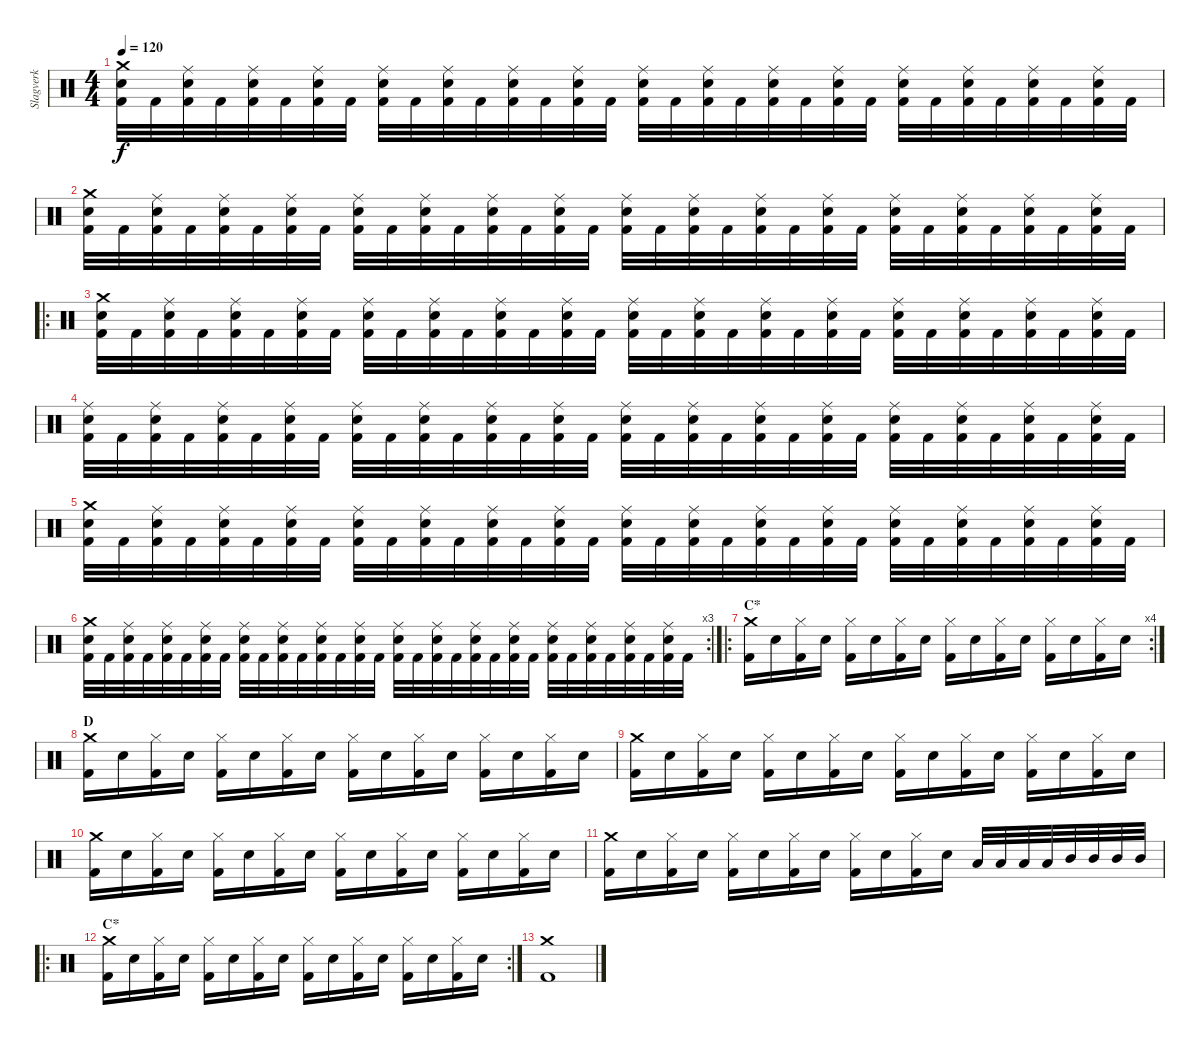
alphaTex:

\track ("Slagverk" "Slagverk") {instrument percussion}
\staff {score}
\articulation defaults
\ts (4 4)
\tempo 120
\clef neutral
\ks c
("Crash medium (hit)" "Electric Snare (hit)" "Kick (hit) 2").32{dy f} "Kick (hit) 2".32 ("Ride (middle)" "Electric Snare (hit)" "Kick (hit) 2").32 "Kick (hit) 2".32 ("Ride (middle)" "Electric Snare (hit)" "Kick (hit) 2").32 "Kick (hit) 2".32 ("Ride (middle)" "Electric Snare (hit)" "Kick (hit) 2").32 "Kick (hit) 2".32 ("Ride (middle)" "Electric Snare (hit)" "Kick (hit) 2").32 "Kick (hit) 2".32 ("Ride (middle)" "Electric Snare (hit)" "Kick (hit) 2").32 "Kick (hit) 2".32 ("Ride (middle)" "Electric Snare (hit)" "Kick (hit) 2").32 "Kick (hit) 2".32 ("Ride (middle)" "Electric Snare (hit)" "Kick (hit) 2").32 "Kick (hit) 2".32 ("Ride (middle)" "Electric Snare (hit)" "Kick (hit) 2").32 "Kick (hit) 2".32 ("Ride (middle)" "Electric Snare (hit)" "Kick (hit) 2").32 "Kick (hit) 2".32 ("Ride (middle)" "Electric Snare (hit)" "Kick (hit) 2").32 "Kick (hit) 2".32 ("Ride (middle)" "Electric Snare (hit)" "Kick (hit) 2").32 "Kick (hit) 2".32 ("Ride (middle)" "Electric Snare (hit)" "Kick (hit) 2").32 "Kick (hit) 2".32 ("Ride (middle)" "Electric Snare (hit)" "Kick (hit) 2").32 "Kick (hit) 2".32 ("Ride (middle)" "Electric Snare (hit)" "Kick (hit) 2").32 "Kick (hit) 2".32 ("Ride (middle)" "Electric Snare (hit)" "Kick (hit) 2").32 "Kick (hit) 2".32 |
("Crash medium (hit)" "Electric Snare (hit)" "Kick (hit) 2").32 "Kick (hit) 2".32 ("Ride (middle)" "Electric Snare (hit)" "Kick (hit) 2").32 "Kick (hit) 2".32 ("Ride (middle)" "Electric Snare (hit)" "Kick (hit) 2").32 "Kick (hit) 2".32 ("Ride (middle)" "Electric Snare (hit)" "Kick (hit) 2").32 "Kick (hit) 2".32 ("Ride (middle)" "Electric Snare (hit)" "Kick (hit) 2").32 "Kick (hit) 2".32 ("Ride (middle)" "Electric Snare (hit)" "Kick (hit) 2").32 "Kick (hit) 2".32 ("Ride (middle)" "Electric Snare (hit)" "Kick (hit) 2").32 "Kick (hit) 2".32 ("Ride (middle)" "Electric Snare (hit)" "Kick (hit) 2").32 "Kick (hit) 2".32 ("Ride (middle)" "Electric Snare (hit)" "Kick (hit) 2").32 "Kick (hit) 2".32 ("Ride (middle)" "Electric Snare (hit)" "Kick (hit) 2").32 "Kick (hit) 2".32 ("Ride (middle)" "Electric Snare (hit)" "Kick (hit) 2").32 "Kick (hit) 2".32 ("Ride (middle)" "Electric Snare (hit)" "Kick (hit) 2").32 "Kick (hit) 2".32 ("Ride (middle)" "Electric Snare (hit)" "Kick (hit) 2").32 "Kick (hit) 2".32 ("Ride (middle)" "Electric Snare (hit)" "Kick (hit) 2").32 "Kick (hit) 2".32 ("Ride (middle)" "Electric Snare (hit)" "Kick (hit) 2").32 "Kick (hit) 2".32 ("Ride (middle)" "Electric Snare (hit)" "Kick (hit) 2").32 "Kick (hit) 2".32 |
\ro
("Crash medium (hit)" "Electric Snare (hit)" "Kick (hit) 2").32 "Kick (hit) 2".32 ("Ride (middle)" "Electric Snare (hit)" "Kick (hit) 2").32 "Kick (hit) 2".32 ("Ride (middle)" "Electric Snare (hit)" "Kick (hit) 2").32 "Kick (hit) 2".32 ("Ride (middle)" "Electric Snare (hit)" "Kick (hit) 2").32 "Kick (hit) 2".32 ("Ride (middle)" "Electric Snare (hit)" "Kick (hit) 2").32 "Kick (hit) 2".32 ("Ride (middle)" "Electric Snare (hit)" "Kick (hit) 2").32 "Kick (hit) 2".32 ("Ride (middle)" "Electric Snare (hit)" "Kick (hit) 2").32 "Kick (hit) 2".32 ("Ride (middle)" "Electric Snare (hit)" "Kick (hit) 2").32 "Kick (hit) 2".32 ("Ride (middle)" "Electric Snare (hit)" "Kick (hit) 2").32 "Kick (hit) 2".32 ("Ride (middle)" "Electric Snare (hit)" "Kick (hit) 2").32 "Kick (hit) 2".32 ("Ride (middle)" "Electric Snare (hit)" "Kick (hit) 2").32 "Kick (hit) 2".32 ("Ride (middle)" "Electric Snare (hit)" "Kick (hit) 2").32 "Kick (hit) 2".32 ("Ride (middle)" "Electric Snare (hit)" "Kick (hit) 2").32 "Kick (hit) 2".32 ("Ride (middle)" "Electric Snare (hit)" "Kick (hit) 2").32 "Kick (hit) 2".32 ("Ride (middle)" "Electric Snare (hit)" "Kick (hit) 2").32 "Kick (hit) 2".32 ("Ride (middle)" "Electric Snare (hit)" "Kick (hit) 2").32 "Kick (hit) 2".32 |
("Ride (middle)" "Electric Snare (hit)" "Kick (hit) 2").32 "Kick (hit) 2".32 ("Ride (middle)" "Electric Snare (hit)" "Kick (hit) 2").32 "Kick (hit) 2".32 ("Ride (middle)" "Electric Snare (hit)" "Kick (hit) 2").32 "Kick (hit) 2".32 ("Ride (middle)" "Electric Snare (hit)" "Kick (hit) 2").32 "Kick (hit) 2".32 ("Ride (middle)" "Electric Snare (hit)" "Kick (hit) 2").32 "Kick (hit) 2".32 ("Ride (middle)" "Electric Snare (hit)" "Kick (hit) 2").32 "Kick (hit) 2".32 ("Ride (middle)" "Electric Snare (hit)" "Kick (hit) 2").32 "Kick (hit) 2".32 ("Ride (middle)" "Electric Snare (hit)" "Kick (hit) 2").32 "Kick (hit) 2".32 ("Ride (middle)" "Electric Snare (hit)" "Kick (hit) 2").32 "Kick (hit) 2".32 ("Ride (middle)" "Electric Snare (hit)" "Kick (hit) 2").32 "Kick (hit) 2".32 ("Ride (middle)" "Electric Snare (hit)" "Kick (hit) 2").32 "Kick (hit) 2".32 ("Ride (middle)" "Electric Snare (hit)" "Kick (hit) 2").32 "Kick (hit) 2".32 ("Ride (middle)" "Electric Snare (hit)" "Kick (hit) 2").32 "Kick (hit) 2".32 ("Ride (middle)" "Electric Snare (hit)" "Kick (hit) 2").32 "Kick (hit) 2".32 ("Ride (middle)" "Electric Snare (hit)" "Kick (hit) 2").32 "Kick (hit) 2".32 ("Ride (middle)" "Electric Snare (hit)" "Kick (hit) 2").32 "Kick (hit) 2".32 |
("Crash medium (hit)" "Electric Snare (hit)" "Kick (hit) 2").32 "Kick (hit) 2".32 ("Ride (middle)" "Electric Snare (hit)" "Kick (hit) 2").32 "Kick (hit) 2".32 ("Ride (middle)" "Electric Snare (hit)" "Kick (hit) 2").32 "Kick (hit) 2".32 ("Ride (middle)" "Electric Snare (hit)" "Kick (hit) 2").32 "Kick (hit) 2".32 ("Ride (middle)" "Electric Snare (hit)" "Kick (hit) 2").32 "Kick (hit) 2".32 ("Ride (middle)" "Electric Snare (hit)" "Kick (hit) 2").32 "Kick (hit) 2".32 ("Ride (middle)" "Electric Snare (hit)" "Kick (hit) 2").32 "Kick (hit) 2".32 ("Ride (middle)" "Electric Snare (hit)" "Kick (hit) 2").32 "Kick (hit) 2".32 ("Ride (middle)" "Electric Snare (hit)" "Kick (hit) 2").32 "Kick (hit) 2".32 ("Ride (middle)" "Electric Snare (hit)" "Kick (hit) 2").32 "Kick (hit) 2".32 ("Ride (middle)" "Electric Snare (hit)" "Kick (hit) 2").32 "Kick (hit) 2".32 ("Ride (middle)" "Electric Snare (hit)" "Kick (hit) 2").32 "Kick (hit) 2".32 ("Ride (middle)" "Electric Snare (hit)" "Kick (hit) 2").32 "Kick (hit) 2".32 ("Ride (middle)" "Electric Snare (hit)" "Kick (hit) 2").32 "Kick (hit) 2".32 ("Ride (middle)" "Electric Snare (hit)" "Kick (hit) 2").32 "Kick (hit) 2".32 ("Ride (middle)" "Electric Snare (hit)" "Kick (hit) 2").32 "Kick (hit) 2".32 |
\rc 3
("Crash medium (hit)" "Electric Snare (hit)" "Kick (hit) 2").32 "Kick (hit) 2".32 ("Ride (middle)" "Electric Snare (hit)" "Kick (hit) 2").32 "Kick (hit) 2".32 ("Ride (middle)" "Electric Snare (hit)" "Kick (hit) 2").32 "Kick (hit) 2".32 ("Ride (middle)" "Electric Snare (hit)" "Kick (hit) 2").32 "Kick (hit) 2".32 ("Ride (middle)" "Electric Snare (hit)" "Kick (hit) 2").32 "Kick (hit) 2".32 ("Ride (middle)" "Electric Snare (hit)" "Kick (hit) 2").32 "Kick (hit) 2".32 ("Ride (middle)" "Electric Snare (hit)" "Kick (hit) 2").32 "Kick (hit) 2".32 ("Ride (middle)" "Electric Snare (hit)" "Kick (hit) 2").32 "Kick (hit) 2".32 ("Ride (middle)" "Electric Snare (hit)" "Kick (hit) 2").32 "Kick (hit) 2".32 ("Ride (middle)" "Electric Snare (hit)" "Kick (hit) 2").32 "Kick (hit) 2".32 ("Ride (middle)" "Electric Snare (hit)" "Kick (hit) 2").32 "Kick (hit) 2".32 ("Ride (middle)" "Electric Snare (hit)" "Kick (hit) 2").32 "Kick (hit) 2".32 ("Ride (middle)" "Electric Snare (hit)" "Kick (hit) 2").32 "Kick (hit) 2".32 ("Ride (middle)" "Electric Snare (hit)" "Kick (hit) 2").32 "Kick (hit) 2".32 ("Ride (middle)" "Electric Snare (hit)" "Kick (hit) 2").32 "Kick (hit) 2".32 ("Ride (middle)" "Electric Snare (hit)" "Kick (hit) 2").32 "Kick (hit) 2".32 |
\ro
\rc 4
\section ("" "C*")
("Crash medium (hit)" "Kick (hit) 2").16 "Electric Snare (hit)".16 ("Hi-Hat (closed)" "Kick (hit) 2").16 "Electric Snare (hit)".16 ("Hi-Hat (closed)" "Kick (hit) 2").16 "Electric Snare (hit)".16 ("Hi-Hat (closed)" "Kick (hit) 2").16 "Electric Snare (hit)".16 ("Hi-Hat (closed)" "Kick (hit) 2").16 "Electric Snare (hit)".16 ("Hi-Hat (closed)" "Kick (hit) 2").16 "Electric Snare (hit)".16 ("Hi-Hat (closed)" "Kick (hit) 2").16 "Electric Snare (hit)".16 ("Hi-Hat (closed)" "Kick (hit) 2").16 "Electric Snare (hit)".16 |
\section ("" "D")
("Crash medium (hit)" "Kick (hit) 2").16 "Electric Snare (hit)".16 ("Hi-Hat (closed)" "Kick (hit) 2").16 "Electric Snare (hit)".16 ("Hi-Hat (closed)" "Kick (hit) 2").16 "Electric Snare (hit)".16 ("Hi-Hat (closed)" "Kick (hit) 2").16 "Electric Snare (hit)".16 ("Hi-Hat (closed)" "Kick (hit) 2").16 "Electric Snare (hit)".16 ("Hi-Hat (closed)" "Kick (hit) 2").16 "Electric Snare (hit)".16 ("Hi-Hat (closed)" "Kick (hit) 2").16 "Electric Snare (hit)".16 ("Hi-Hat (closed)" "Kick (hit) 2").16 "Electric Snare (hit)".16 |
("Crash medium (hit)" "Kick (hit) 2").16 "Electric Snare (hit)".16 ("Hi-Hat (closed)" "Kick (hit) 2").16 "Electric Snare (hit)".16 ("Hi-Hat (closed)" "Kick (hit) 2").16 "Electric Snare (hit)".16 ("Hi-Hat (closed)" "Kick (hit) 2").16 "Electric Snare (hit)".16 ("Hi-Hat (closed)" "Kick (hit) 2").16 "Electric Snare (hit)".16 ("Hi-Hat (closed)" "Kick (hit) 2").16 "Electric Snare (hit)".16 ("Hi-Hat (closed)" "Kick (hit) 2").16 "Electric Snare (hit)".16 ("Hi-Hat (closed)" "Kick (hit) 2").16 "Electric Snare (hit)".16 |
("Crash medium (hit)" "Kick (hit) 2").16 "Electric Snare (hit)".16 ("Hi-Hat (closed)" "Kick (hit) 2").16 "Electric Snare (hit)".16 ("Hi-Hat (closed)" "Kick (hit) 2").16 "Electric Snare (hit)".16 ("Hi-Hat (closed)" "Kick (hit) 2").16 "Electric Snare (hit)".16 ("Hi-Hat (closed)" "Kick (hit) 2").16 "Electric Snare (hit)".16 ("Hi-Hat (closed)" "Kick (hit) 2").16 "Electric Snare (hit)".16 ("Hi-Hat (closed)" "Kick (hit) 2").16 "Electric Snare (hit)".16 ("Hi-Hat (closed)" "Kick (hit) 2").16 "Electric Snare (hit)".16 |
("Crash medium (hit)" "Kick (hit) 2").16 "Electric Snare (hit)".16 ("Hi-Hat (closed)" "Kick (hit) 2").16 "Electric Snare (hit)".16 ("Hi-Hat (closed)" "Kick (hit) 2").16 "Electric Snare (hit)".16 ("Hi-Hat (closed)" "Kick (hit) 2").16 "Electric Snare (hit)".16 ("Hi-Hat (closed)" "Kick (hit) 2").16 "Electric Snare (hit)".16 ("Hi-Hat (closed)" "Kick (hit) 2").16 "Electric Snare (hit)".16 "Low Tom (hit)".32 "Low Tom (hit)".32 "Low Tom (hit)".32 "Low Tom (hit)".32 "Mid Tom (hit)".32 "Mid Tom (hit)".32 "Mid Tom (hit)".32 "Mid Tom (hit)".32 |
\ro
\rc 2
\section ("" "C*")
("Crash medium (hit)" "Kick (hit) 2").16 "Electric Snare (hit)".16 ("Hi-Hat (closed)" "Kick (hit) 2").16 "Electric Snare (hit)".16 ("Hi-Hat (closed)" "Kick (hit) 2").16 "Electric Snare (hit)".16 ("Hi-Hat (closed)" "Kick (hit) 2").16 "Electric Snare (hit)".16 ("Hi-Hat (closed)" "Kick (hit) 2").16 "Electric Snare (hit)".16 ("Hi-Hat (closed)" "Kick (hit) 2").16 "Electric Snare (hit)".16 ("Hi-Hat (closed)" "Kick (hit) 2").16 "Electric Snare (hit)".16 ("Hi-Hat (closed)" "Kick (hit) 2").16 "Electric Snare (hit)".16 |
("Crash medium (hit)" "Kick (hit) 2").1
